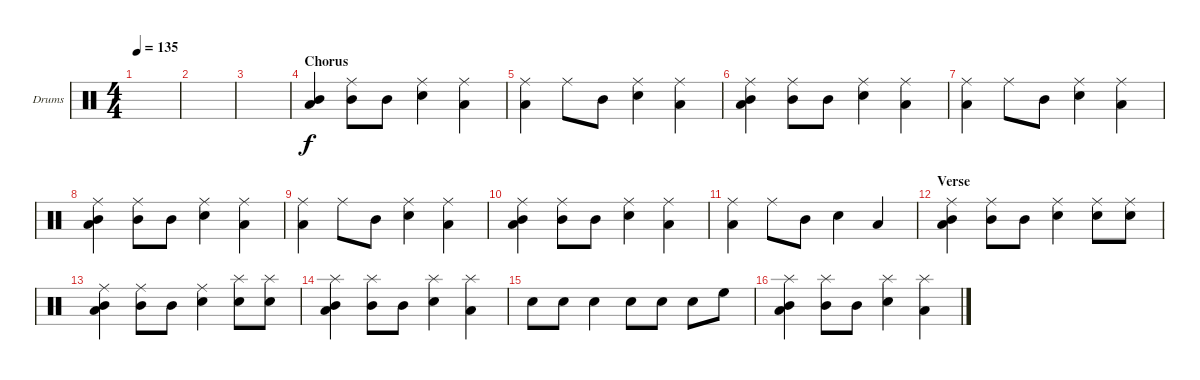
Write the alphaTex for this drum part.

\defaultSystemsLayout 4
\bracketExtendMode groupsimilarinstruments
\firstSystemTrackNameOrientation horizontal
\otherSystemsTrackNameOrientation horizontal
\track ("Drum" "Drums") {instrument percussion}
\staff {score}
\articulation defaults
\ts (4 4)
\tempo 135
\clef neutral
\scale
0.474178
\ks c
|
\scale
0.262911 |
\scale
0.262911 |
\section ("" "Chorus")
\scale
0.333333 ("Mid Tom (hit)" "Low Tom (hit)").4 ("Ride (middle)" "Mid Tom (hit)").8 "Mid Tom (hit)".8 ("Ride (middle)" "Snare (hit) 2").4 ("Ride (middle)" "Low Tom (hit)").4 |
\scale
0.333333 ("Ride (middle)" "Low Tom (hit)").4 "Ride (middle)".8 "Mid Tom (hit)".8 ("Ride (middle)" "Snare (hit) 2").4 ("Ride (middle)" "Low Tom (hit)").4 |
\scale
0.333333 ("Mid Tom (hit)" "Low Tom (hit)" "Ride (middle)").4 ("Ride (middle)" "Mid Tom (hit)").8 "Mid Tom (hit)".8 ("Ride (middle)" "Snare (hit) 2").4 ("Ride (middle)" "Low Tom (hit)").4 |
\scale
0.333333 ("Ride (middle)" "Low Tom (hit)").4 "Ride (middle)".8 "Mid Tom (hit)".8 ("Ride (middle)" "Snare (hit) 2").4 ("Ride (middle)" "Low Tom (hit)").4 |
\scale
0.333333 ("Mid Tom (hit)" "Low Tom (hit)" "Ride (middle)").4 ("Ride (middle)" "Mid Tom (hit)").8 "Mid Tom (hit)".8 ("Ride (middle)" "Snare (hit) 2").4 ("Ride (middle)" "Low Tom (hit)").4 |
\scale
0.333333 ("Ride (middle)" "Low Tom (hit)").4 "Ride (middle)".8 "Mid Tom (hit)".8 ("Ride (middle)" "Snare (hit) 2").4 ("Ride (middle)" "Low Tom (hit)").4 |
\scale
0.333333 ("Mid Tom (hit)" "Low Tom (hit)" "Ride (middle)").4 ("Ride (middle)" "Mid Tom (hit)").8 "Mid Tom (hit)".8 ("Ride (middle)" "Snare (hit) 2").4 ("Ride (middle)" "Low Tom (hit)").4 |
\scale
0.333333 ("Ride (middle)" "Low Tom (hit)").4 "Ride (middle)".8 "Mid Tom (hit)".8 "Snare (hit) 2".4 "Low Tom (hit)".4 |
\section ("" "Verse")
\scale
0.333333 ("Mid Tom (hit)" "Low Tom (hit)" "Ride (middle)").4 ("Ride (middle)" "Mid Tom (hit)").8 "Mid Tom (hit)".8 ("Ride (middle)" "Snare (hit) 2").4 ("Ride (middle)" "Snare (hit) 2").8 ("Snare (hit) 2" "Ride (middle)").8 |
\scale
0.333333 ("Mid Tom (hit)" "Low Tom (hit)" "Ride (middle)").4 ("Ride (middle)" "Mid Tom (hit)").8 "Mid Tom (hit)".8 ("Ride (middle)" "Snare (hit) 2").4 ("Snare (hit) 2" "Splash (hit)").8 ("Snare (hit) 2" "Splash (hit)").8 |
\scale
0.333333 ("Mid Tom (hit)" "Low Tom (hit)" "Splash (hit)").4 ("Mid Tom (hit)" "Splash (hit)").8 "Mid Tom (hit)".8 ("Snare (hit) 2" "Splash (hit)").4 ("Low Tom (hit)" "Splash (hit)").4 |
\scale
0.333333 "Snare (hit) 2".8 "Snare (hit) 2".8 "Snare (hit) 2".4 "Snare (hit) 2".8 "Snare (hit) 2".8 "Snare (hit) 2".8 "High Floor Tom (hit)".8 |
\scale
0.333333 ("Mid Tom (hit)" "Low Tom (hit)" "Splash (hit)").4 ("Mid Tom (hit)" "Splash (hit)").8 "Mid Tom (hit)".8 ("Snare (hit) 2" "Splash (hit)").4 ("Low Tom (hit)" "Splash (hit)").4
